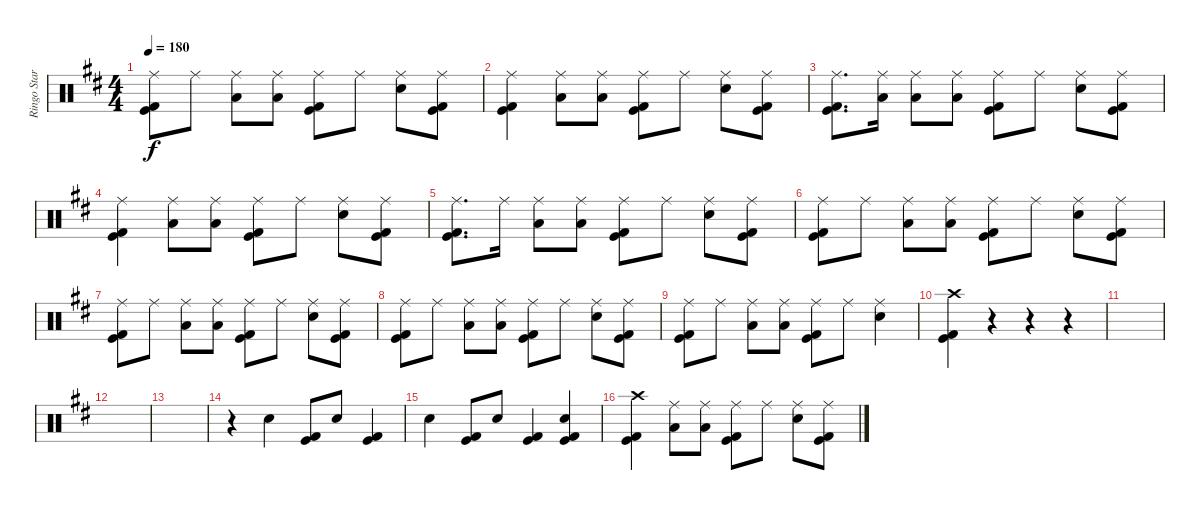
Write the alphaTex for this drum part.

\track ("Ringo Starr" "Ringo Star") {instrument percussion}
\staff {score}
\articulation defaults
\ts (4 4)
\tempo 180
\clef neutral
\ks d
("Ride (middle)" "Kick (hit) 2" "Kick (hit)").8{dy f} "Ride (middle)".8 ("Ride (middle)" "Low Tom (hit)").8 ("Ride (middle)" "Low Tom (hit)").8 ("Ride (middle)" "Kick (hit) 2" "Kick (hit)").8 "Ride (middle)".8 ("Ride (middle)" "Electric Snare (hit)").8 ("Ride (middle)" "Kick (hit) 2" "Kick (hit)").8 |
("Ride (middle)" "Kick (hit) 2" "Kick (hit)").4 ("Ride (middle)" "Low Tom (hit)").8 ("Ride (middle)" "Low Tom (hit)").8 ("Ride (middle)" "Kick (hit) 2" "Kick (hit)").8 "Ride (middle)".8 ("Ride (middle)" "Electric Snare (hit)").8 ("Ride (middle)" "Kick (hit) 2" "Kick (hit)").8 |
("Ride (middle)" "Kick (hit) 2" "Kick (hit)").8{d} ("Ride (middle)" "Low Tom (hit)").16 ("Ride (middle)" "Low Tom (hit)").8 ("Ride (middle)" "Low Tom (hit)").8 ("Ride (middle)" "Kick (hit) 2" "Kick (hit)").8 "Ride (middle)".8 ("Ride (middle)" "Electric Snare (hit)").8 ("Ride (middle)" "Kick (hit) 2" "Kick (hit)").8 |
("Ride (middle)" "Kick (hit) 2" "Kick (hit)").4 ("Ride (middle)" "Low Tom (hit)").8 ("Ride (middle)" "Low Tom (hit)").8 ("Ride (middle)" "Kick (hit) 2" "Kick (hit)").8 "Ride (middle)".8 ("Ride (middle)" "Electric Snare (hit)").8 ("Ride (middle)" "Kick (hit) 2" "Kick (hit)").8 |
("Ride (middle)" "Kick (hit) 2" "Kick (hit)").8{d} "Ride (middle)".16 ("Ride (middle)" "Low Tom (hit)").8 ("Ride (middle)" "Low Tom (hit)").8 ("Ride (middle)" "Kick (hit) 2" "Kick (hit)").8 "Ride (middle)".8 ("Ride (middle)" "Electric Snare (hit)").8 ("Ride (middle)" "Kick (hit) 2" "Kick (hit)").8 |
("Ride (middle)" "Kick (hit) 2" "Kick (hit)").8 "Ride (middle)".8 ("Ride (middle)" "Low Tom (hit)").8 ("Ride (middle)" "Low Tom (hit)").8 ("Ride (middle)" "Kick (hit) 2" "Kick (hit)").8 "Ride (middle)".8 ("Ride (middle)" "Electric Snare (hit)").8 ("Ride (middle)" "Kick (hit) 2" "Kick (hit)").8 |
("Ride (middle)" "Kick (hit) 2" "Kick (hit)").8 "Ride (middle)".8 ("Ride (middle)" "Low Tom (hit)").8 ("Ride (middle)" "Low Tom (hit)").8 ("Ride (middle)" "Kick (hit) 2" "Kick (hit)").8 "Ride (middle)".8 ("Ride (middle)" "Electric Snare (hit)").8 ("Ride (middle)" "Kick (hit) 2" "Kick (hit)").8 |
("Ride (middle)" "Kick (hit) 2" "Kick (hit)").8 "Ride (middle)".8 ("Ride (middle)" "Low Tom (hit)").8 ("Ride (middle)" "Low Tom (hit)").8 ("Ride (middle)" "Kick (hit) 2" "Kick (hit)").8 "Ride (middle)".8 ("Ride (middle)" "Electric Snare (hit)").8 ("Ride (middle)" "Kick (hit) 2" "Kick (hit)").8 |
("Ride (middle)" "Kick (hit) 2" "Kick (hit)").8 "Ride (middle)".8 ("Ride (middle)" "Low Tom (hit)").8 ("Ride (middle)" "Low Tom (hit)").8 ("Ride (middle)" "Kick (hit) 2" "Kick (hit)").8 "Ride (middle)".8 ("Ride (middle)" "Electric Snare (hit)").4 |
("Crash high (hit)" "Kick (hit) 2" "Kick (hit)").4 r.4 r.4 r.4 |
|
|
|
r.4 "Electric Snare (hit)".4 ("Kick (hit) 2" "Kick (hit)").8 "Electric Snare (hit)".8 ("Kick (hit) 2" "Kick (hit)").4 |
"Electric Snare (hit)".4 ("Kick (hit) 2" "Kick (hit)").8 "Electric Snare (hit)".8 ("Kick (hit) 2" "Kick (hit)").4 ("Electric Snare (hit)" "Kick (hit) 2" "Kick (hit)").4 |
("Crash high (hit)" "Kick (hit) 2" "Kick (hit)").4 ("Ride (middle)" "Low Tom (hit)").8 ("Ride (middle)" "Low Tom (hit)").8 ("Ride (middle)" "Kick (hit) 2" "Kick (hit)").8 "Ride (middle)".8 ("Ride (middle)" "Electric Snare (hit)").8 ("Ride (middle)" "Kick (hit) 2" "Kick (hit)").8
